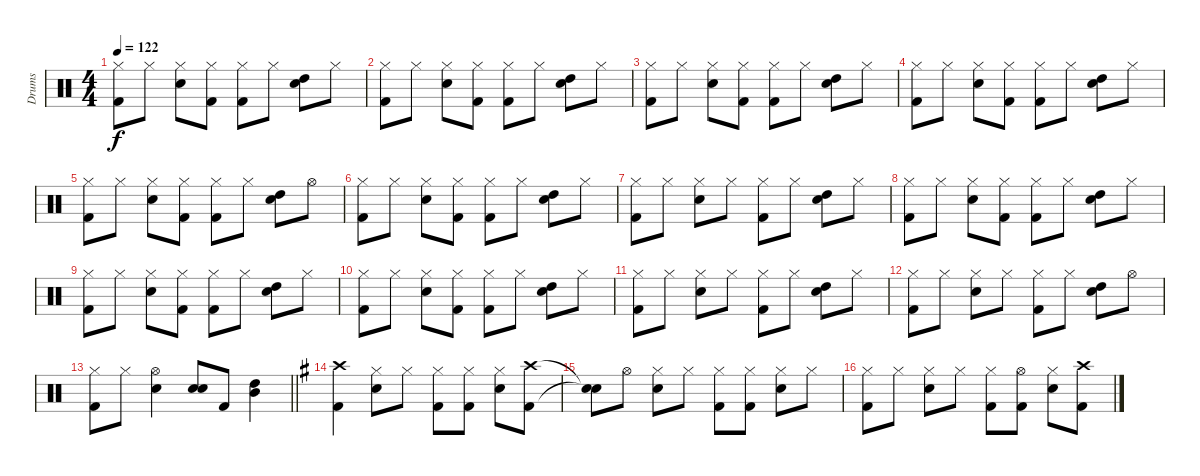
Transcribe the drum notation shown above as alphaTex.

\track ("Drums" "Drums") {instrument percussion}
\staff {score}
\articulation defaults
\ts (4 4)
\tempo 122
\clef neutral
\ks c
("Hi-Hat (closed)" "Kick (hit) 2").8{dy f} "Hi-Hat (closed)".8 ("Hi-Hat (closed)" "Electric Snare (hit)").8 ("Hi-Hat (closed)" "Kick (hit) 2").8 ("Hi-Hat (closed)" "Kick (hit) 2").8 "Hi-Hat (closed)".8 ("Electric Snare (hit)" "High Tom (hit)").8 "Hi-Hat (closed)".8 |
("Hi-Hat (closed)" "Kick (hit) 2").8 "Hi-Hat (closed)".8 ("Hi-Hat (closed)" "Electric Snare (hit)").8 ("Hi-Hat (closed)" "Kick (hit) 2").8 ("Hi-Hat (closed)" "Kick (hit) 2").8 "Hi-Hat (closed)".8 ("Electric Snare (hit)" "High Tom (hit)").8 "Hi-Hat (closed)".8 |
("Hi-Hat (closed)" "Kick (hit) 2").8 "Hi-Hat (closed)".8 ("Hi-Hat (closed)" "Electric Snare (hit)").8 ("Hi-Hat (closed)" "Kick (hit) 2").8 ("Hi-Hat (closed)" "Kick (hit) 2").8 "Hi-Hat (closed)".8 ("Electric Snare (hit)" "High Tom (hit)").8 "Hi-Hat (closed)".8 |
("Hi-Hat (closed)" "Kick (hit) 2").8 "Hi-Hat (closed)".8 ("Hi-Hat (closed)" "Electric Snare (hit)").8 ("Hi-Hat (closed)" "Kick (hit) 2").8 ("Hi-Hat (closed)" "Kick (hit) 2").8 "Hi-Hat (closed)".8 ("Electric Snare (hit)" "High Tom (hit)").8 "Hi-Hat (closed)".8 |
("Hi-Hat (closed)" "Kick (hit) 2").8 "Hi-Hat (closed)".8 ("Hi-Hat (closed)" "Electric Snare (hit)").8 ("Hi-Hat (closed)" "Kick (hit) 2").8 ("Hi-Hat (closed)" "Kick (hit) 2").8 "Hi-Hat (closed)".8 ("Electric Snare (hit)" "High Tom (hit)").8 "Hi-Hat (open)".8 |
("Hi-Hat (closed)" "Kick (hit) 2").8 "Hi-Hat (closed)".8 ("Hi-Hat (closed)" "Electric Snare (hit)").8 ("Hi-Hat (closed)" "Kick (hit) 2").8 ("Hi-Hat (closed)" "Kick (hit) 2").8 "Hi-Hat (closed)".8 ("Electric Snare (hit)" "High Tom (hit)").8 "Hi-Hat (closed)".8 |
("Hi-Hat (closed)" "Kick (hit) 2").8 "Hi-Hat (closed)".8 ("Hi-Hat (closed)" "Electric Snare (hit)").8 "Hi-Hat (closed)".8 ("Hi-Hat (closed)" "Kick (hit) 2").8 "Hi-Hat (closed)".8 ("Electric Snare (hit)" "High Tom (hit)").8 "Hi-Hat (closed)".8 |
("Hi-Hat (closed)" "Kick (hit) 2").8 "Hi-Hat (closed)".8 ("Hi-Hat (closed)" "Electric Snare (hit)").8 ("Hi-Hat (closed)" "Kick (hit) 2").8 ("Hi-Hat (closed)" "Kick (hit) 2").8 "Hi-Hat (closed)".8 ("Electric Snare (hit)" "High Tom (hit)").8 "Hi-Hat (closed)".8 |
("Hi-Hat (closed)" "Kick (hit) 2").8 "Hi-Hat (closed)".8 ("Hi-Hat (closed)" "Electric Snare (hit)").8 ("Hi-Hat (closed)" "Kick (hit) 2").8 ("Hi-Hat (closed)" "Kick (hit) 2").8 "Hi-Hat (closed)".8 ("Electric Snare (hit)" "High Tom (hit)").8 "Hi-Hat (closed)".8 |
("Hi-Hat (closed)" "Kick (hit) 2").8 "Hi-Hat (closed)".8 ("Hi-Hat (closed)" "Electric Snare (hit)").8 ("Hi-Hat (closed)" "Kick (hit) 2").8 ("Hi-Hat (closed)" "Kick (hit) 2").8 "Hi-Hat (closed)".8 ("Electric Snare (hit)" "High Tom (hit)").8 "Hi-Hat (closed)".8 |
("Hi-Hat (closed)" "Kick (hit) 2").8 "Hi-Hat (closed)".8 ("Hi-Hat (closed)" "Electric Snare (hit)").8 "Hi-Hat (closed)".8 ("Hi-Hat (closed)" "Kick (hit) 2").8 "Hi-Hat (closed)".8 ("Electric Snare (hit)" "High Tom (hit)").8 "Hi-Hat (closed)".8 |
("Hi-Hat (closed)" "Kick (hit) 2").8 "Hi-Hat (closed)".8 ("Hi-Hat (closed)" "Electric Snare (hit)").8 "Hi-Hat (closed)".8 ("Hi-Hat (closed)" "Kick (hit) 2").8 "Hi-Hat (closed)".8 ("Electric Snare (hit)" "High Tom (hit)").8 "Hi-Hat (open)".8 |
\barLineRight lightlight
("Hi-Hat (closed)" "Kick (hit) 2").8 "Hi-Hat (closed)".8 ("Hi-Hat (open)" "Electric Snare (hit)").4 ("Snare (hit) 2" "Electric Snare (hit)").8 "Kick (hit) 2".8 ("High Tom (hit)" "Mid Tom (hit)").4 |
\ks g
("Crash high (hit)" "Kick (hit) 2").4 ("Hi-Hat (closed)" "Electric Snare (hit)").8 "Hi-Hat (closed)".8 ("Hi-Hat (closed)" "Kick (hit) 2").8 ("Hi-Hat (closed)" "Kick (hit) 2").8 ("Hi-Hat (closed)" "Electric Snare (hit)").8 ("Crash high (hit)" "Kick (hit) 2").8 |
("Snare (hit)"{t} "Snare (hit)"{t}).8 "Hi-Hat (open)".8 ("Hi-Hat (closed)" "Electric Snare (hit)").8 "Hi-Hat (closed)".8 ("Hi-Hat (closed)" "Kick (hit) 2").8 ("Hi-Hat (closed)" "Kick (hit) 2").8 ("Hi-Hat (closed)" "Electric Snare (hit)").8 "Hi-Hat (closed)".8 |
("Hi-Hat (closed)" "Kick (hit) 2").8 "Hi-Hat (closed)".8 ("Hi-Hat (closed)" "Electric Snare (hit)").8 "Hi-Hat (closed)".8 ("Hi-Hat (closed)" "Kick (hit) 2").8 ("Hi-Hat (open)" "Kick (hit) 2").8 ("Hi-Hat (closed)" "Electric Snare (hit)").8 ("Crash high (hit)" "Kick (hit) 2").8
